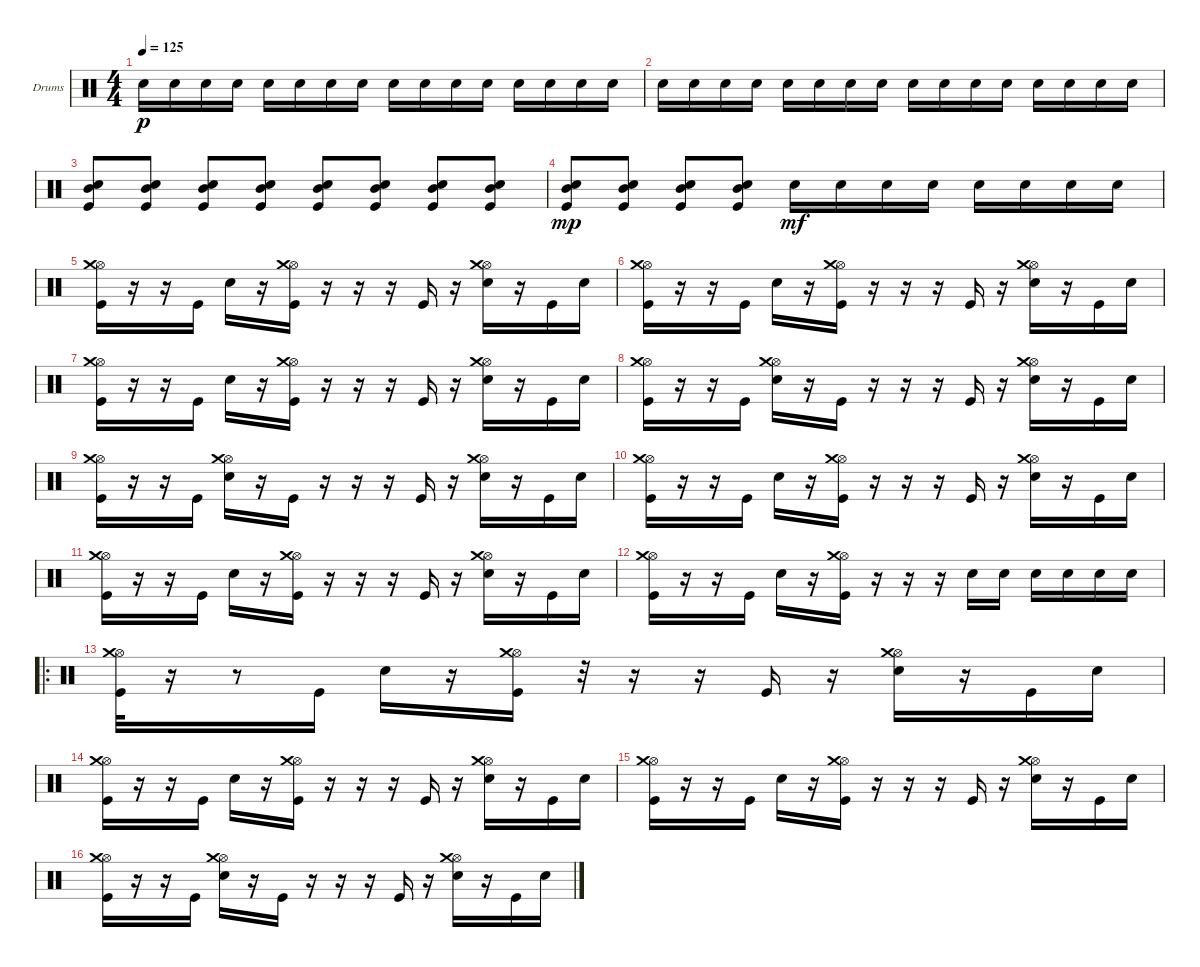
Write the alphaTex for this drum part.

\defaultSystemsLayout 4
\bracketExtendMode groupsimilarinstruments
\firstSystemTrackNameOrientation horizontal
\otherSystemsTrackNameOrientation horizontal
\track ("Ударные" "Drums") {instrument percussion}
\staff {score}
\articulation defaults
\ts (4 4)
\tempo 125
\clef neutral
\ks c "Snare (hit) 2".16{dy p} "Snare (hit) 2".16 "Snare (hit) 2".16 "Snare (hit) 2".16 "Snare (hit) 2".16 "Snare (hit) 2".16 "Snare (hit) 2".16 "Snare (hit) 2".16 "Snare (hit) 2".16 "Snare (hit) 2".16 "Snare (hit) 2".16 "Snare (hit) 2".16 "Snare (hit) 2".16 "Snare (hit) 2".16 "Snare (hit) 2".16 "Snare (hit) 2".16
|
"Snare (hit) 2".16 "Snare (hit) 2".16 "Snare (hit) 2".16 "Snare (hit) 2".16 "Snare (hit) 2".16 "Snare (hit) 2".16 "Snare (hit) 2".16 "Snare (hit) 2".16 "Snare (hit) 2".16 "Snare (hit) 2".16 "Snare (hit) 2".16 "Snare (hit) 2".16 "Snare (hit) 2".16 "Snare (hit) 2".16 "Snare (hit) 2".16 "Snare (hit) 2".16 |
("Snare (hit) 2" "Mid Tom (hit)" "Kick (hit)").8 ("Snare (hit) 2" "Mid Tom (hit)" "Kick (hit)").8 ("Snare (hit) 2" "Mid Tom (hit)" "Kick (hit)").8 ("Snare (hit) 2" "Mid Tom (hit)" "Kick (hit)").8 ("Snare (hit) 2" "Mid Tom (hit)" "Kick (hit)").8 ("Snare (hit) 2" "Mid Tom (hit)" "Kick (hit)").8 ("Snare (hit) 2" "Mid Tom (hit)" "Kick (hit)").8 ("Snare (hit) 2" "Mid Tom (hit)" "Kick (hit)").8 |
("Snare (hit) 2" "Mid Tom (hit)" "Kick (hit)").8{dy mp} ("Snare (hit) 2" "Mid Tom (hit)" "Kick (hit)").8 ("Snare (hit) 2" "Mid Tom (hit)" "Kick (hit)").8 ("Snare (hit) 2" "Mid Tom (hit)" "Kick (hit)").8 "Snare (hit) 2".16{dy mf} "Snare (hit) 2".16 "Snare (hit) 2".16 "Snare (hit) 2".16 "Snare (hit) 2".16 "Snare (hit) 2".16 "Snare (hit) 2".16 "Snare (hit) 2".16 |
("Kick (hit)" "Hi-Hat (open)" "Crash medium (hit)").16 r.16 r.16 "Kick (hit)".16 "Snare (hit) 2".16 r.16 ("Kick (hit)" "Hi-Hat (open)" "Crash medium (hit)").16 r.16 r.16 r.16 "Kick (hit)".16 r.16 ("Snare (hit) 2" "Hi-Hat (open)" "Crash medium (hit)").16 r.16 "Kick (hit)".16 "Snare (hit) 2".16 |
("Kick (hit)" "Hi-Hat (open)" "Crash medium (hit)").16 r.16 r.16 "Kick (hit)".16 "Snare (hit) 2".16 r.16 ("Kick (hit)" "Hi-Hat (open)" "Crash medium (hit)").16 r.16 r.16 r.16 "Kick (hit)".16 r.16 ("Snare (hit) 2" "Hi-Hat (open)" "Crash medium (hit)").16 r.16 "Kick (hit)".16 "Snare (hit) 2".16 |
("Kick (hit)" "Hi-Hat (open)" "Crash medium (hit)").16 r.16 r.16 "Kick (hit)".16 "Snare (hit) 2".16 r.16 ("Kick (hit)" "Hi-Hat (open)" "Crash medium (hit)").16 r.16 r.16 r.16 "Kick (hit)".16 r.16 ("Snare (hit) 2" "Hi-Hat (open)" "Crash medium (hit)").16 r.16 "Kick (hit)".16 "Snare (hit) 2".16 |
("Kick (hit)" "Hi-Hat (open)" "Crash medium (hit)").16 r.16 r.16 "Kick (hit)".16 ("Snare (hit) 2" "Hi-Hat (open)" "Crash medium (hit)").16 r.16 "Kick (hit)".16 r.16 r.16 r.16 "Kick (hit)".16 r.16 ("Snare (hit) 2" "Hi-Hat (open)" "Crash medium (hit)").16 r.16 "Kick (hit)".16 "Snare (hit) 2".16 |
("Kick (hit)" "Hi-Hat (open)" "Crash medium (hit)").16 r.16 r.16 "Kick (hit)".16 ("Snare (hit) 2" "Hi-Hat (open)" "Crash medium (hit)").16 r.16 "Kick (hit)".16 r.16 r.16 r.16 "Kick (hit)".16 r.16 ("Snare (hit) 2" "Hi-Hat (open)" "Crash medium (hit)").16 r.16 "Kick (hit)".16 "Snare (hit) 2".16 |
("Kick (hit)" "Hi-Hat (open)" "Crash medium (hit)").16 r.16 r.16 "Kick (hit)".16 "Snare (hit) 2".16 r.16 ("Kick (hit)" "Hi-Hat (open)" "Crash medium (hit)").16 r.16 r.16 r.16 "Kick (hit)".16 r.16 ("Snare (hit) 2" "Hi-Hat (open)" "Crash medium (hit)").16 r.16 "Kick (hit)".16 "Snare (hit) 2".16 |
("Kick (hit)" "Hi-Hat (open)" "Crash medium (hit)").16 r.16 r.16 "Kick (hit)".16 "Snare (hit) 2".16 r.16 ("Kick (hit)" "Hi-Hat (open)" "Crash medium (hit)").16 r.16 r.16 r.16 "Kick (hit)".16 r.16 ("Snare (hit) 2" "Hi-Hat (open)" "Crash medium (hit)").16 r.16 "Kick (hit)".16 "Snare (hit) 2".16 |
("Kick (hit)" "Hi-Hat (open)" "Crash medium (hit)").16 r.16 r.16 "Kick (hit)".16 "Snare (hit) 2".16 r.16 ("Kick (hit)" "Hi-Hat (open)" "Crash medium (hit)").16 r.16 r.16 r.16 "Snare (hit) 2".16 "Snare (hit) 2".16 "Snare (hit) 2".16 "Snare (hit) 2".16 "Snare (hit) 2".16 "Snare (hit) 2".16 |
\ro
("Kick (hit)" "Hi-Hat (open)" "Crash medium (hit)").32 r.16 r.8 "Kick (hit)".16 "Snare (hit) 2".16 r.16 ("Kick (hit)" "Hi-Hat (open)" "Crash medium (hit)").16 r.32 r.16 r.16 "Kick (hit)".16 r.16 ("Snare (hit) 2" "Hi-Hat (open)" "Crash medium (hit)").16 r.16 "Kick (hit)".16 "Snare (hit) 2".16 |
("Kick (hit)" "Hi-Hat (open)" "Crash medium (hit)").16 r.16 r.16 "Kick (hit)".16 "Snare (hit) 2".16 r.16 ("Kick (hit)" "Hi-Hat (open)" "Crash medium (hit)").16 r.16 r.16 r.16 "Kick (hit)".16 r.16 ("Snare (hit) 2" "Hi-Hat (open)" "Crash medium (hit)").16 r.16 "Kick (hit)".16 "Snare (hit) 2".16 |
("Kick (hit)" "Hi-Hat (open)" "Crash medium (hit)").16 r.16 r.16 "Kick (hit)".16 "Snare (hit) 2".16 r.16 ("Kick (hit)" "Hi-Hat (open)" "Crash medium (hit)").16 r.16 r.16 r.16 "Kick (hit)".16 r.16 ("Snare (hit) 2" "Hi-Hat (open)" "Crash medium (hit)").16 r.16 "Kick (hit)".16 "Snare (hit) 2".16 |
("Kick (hit)" "Hi-Hat (open)" "Crash medium (hit)").16 r.16 r.16 "Kick (hit)".16 ("Snare (hit) 2" "Hi-Hat (open)" "Crash medium (hit)").16 r.16 "Kick (hit)".16 r.16 r.16 r.16 "Kick (hit)".16 r.16 ("Snare (hit) 2" "Hi-Hat (open)" "Crash medium (hit)").16 r.16 "Kick (hit)".16 "Snare (hit) 2".16
